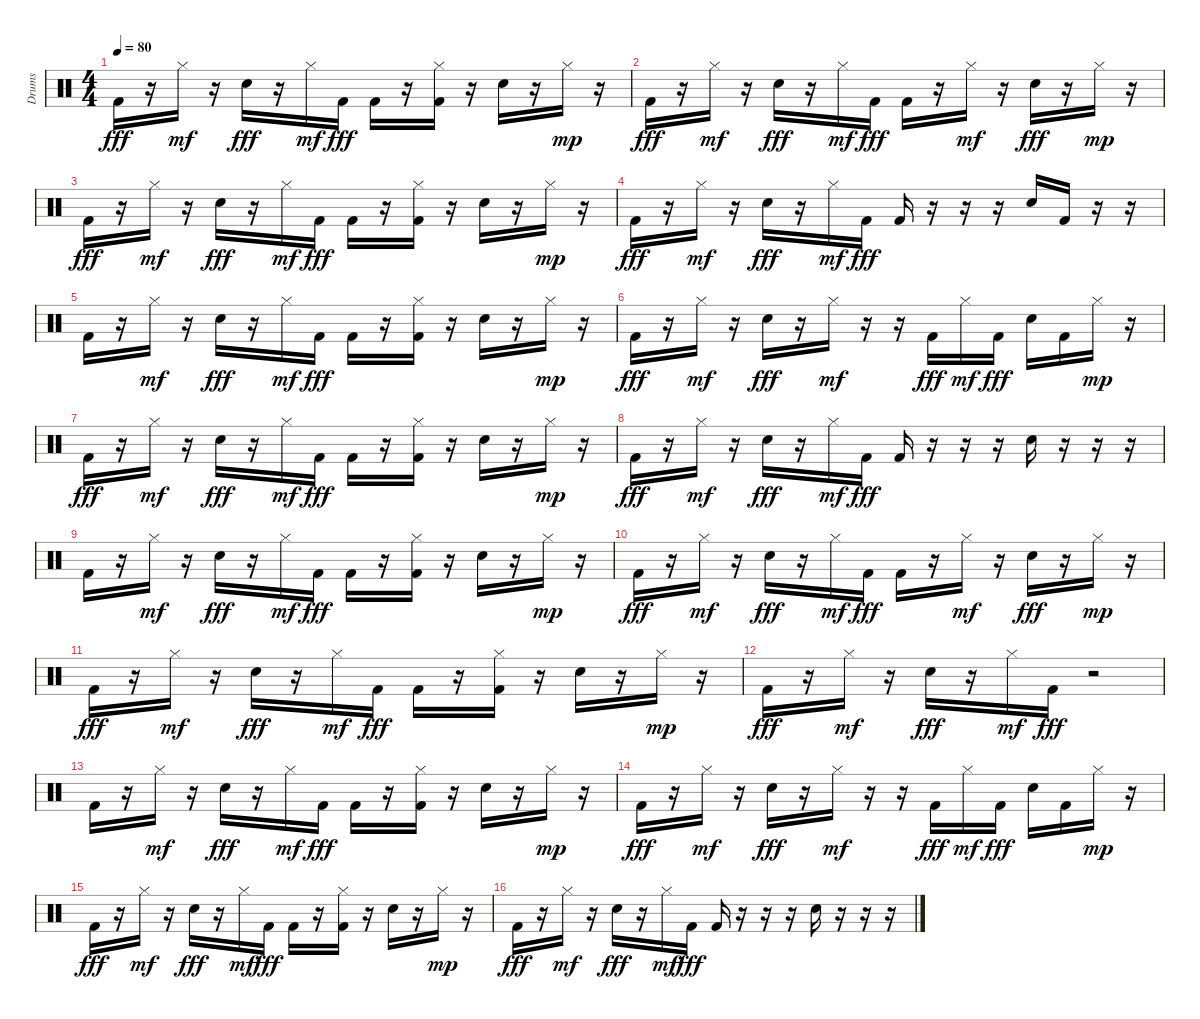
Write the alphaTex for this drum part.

\track ("Drums" "Drums") {instrument percussion}
\staff
\articulation defaults
\ts (4 4)
\tempo 80
\clef neutral
\ks c "Kick (hit) 2".16{dy fff}
r.16 "Hi-Hat (closed)".16{dy mf} r.16 "Electric Snare (hit)".16{dy fff} r.16 "Hi-Hat (closed)".16{dy mf} "Kick (hit) 2".16{dy fff} "Kick (hit) 2".16 r.16 ("Hi-Hat (closed)" "Kick (hit) 2").16 r.16 "Electric Snare (hit)".16 r.16 "Hi-Hat (closed)".16{dy mp} r.16 |
"Kick (hit) 2".16{dy fff} r.16 "Hi-Hat (closed)".16{dy mf} r.16 "Electric Snare (hit)".16{dy fff} r.16 "Hi-Hat (closed)".16{dy mf} "Kick (hit) 2".16{dy fff} "Kick (hit) 2".16 r.16 "Hi-Hat (closed)".16{dy mf} r.16 "Electric Snare (hit)".16{dy fff} r.16 "Hi-Hat (closed)".16{dy mp} r.16 |
"Kick (hit) 2".16{dy fff} r.16 "Hi-Hat (closed)".16{dy mf} r.16 "Electric Snare (hit)".16{dy fff} r.16 "Hi-Hat (closed)".16{dy mf} "Kick (hit) 2".16{dy fff} "Kick (hit) 2".16 r.16 ("Hi-Hat (closed)" "Kick (hit) 2").16 r.16 "Electric Snare (hit)".16 r.16 "Hi-Hat (closed)".16{dy mp} r.16 |
"Kick (hit) 2".16{dy fff} r.16 "Hi-Hat (closed)".16{dy mf} r.16 "Electric Snare (hit)".16{dy fff} r.16 "Hi-Hat (closed)".16{dy mf} "Kick (hit) 2".16{dy fff} "Kick (hit) 2".16 r.16 r.16 r.16 "Electric Snare (hit)".16 "Kick (hit) 2".16 r.16 r.16 |
"Kick (hit) 2".16 r.16 "Hi-Hat (closed)".16{dy mf} r.16 "Electric Snare (hit)".16{dy fff} r.16 "Hi-Hat (closed)".16{dy mf} "Kick (hit) 2".16{dy fff} "Kick (hit) 2".16 r.16 ("Hi-Hat (closed)" "Kick (hit) 2").16 r.16 "Electric Snare (hit)".16 r.16 "Hi-Hat (closed)".16{dy mp} r.16 |
"Kick (hit) 2".16{dy fff} r.16 "Hi-Hat (closed)".16{dy mf} r.16 "Electric Snare (hit)".16{dy fff} r.16 "Hi-Hat (closed)".16{dy mf} r.16 r.16 "Kick (hit) 2".16{dy fff} "Hi-Hat (closed)".16{dy mf} "Kick (hit) 2".16{dy fff} "Electric Snare (hit)".16 "Kick (hit) 2".16 "Hi-Hat (closed)".16{dy mp} r.16 |
"Kick (hit) 2".16{dy fff} r.16 "Hi-Hat (closed)".16{dy mf} r.16 "Electric Snare (hit)".16{dy fff} r.16 "Hi-Hat (closed)".16{dy mf} "Kick (hit) 2".16{dy fff} "Kick (hit) 2".16 r.16 ("Hi-Hat (closed)" "Kick (hit) 2").16 r.16 "Electric Snare (hit)".16 r.16 "Hi-Hat (closed)".16{dy mp} r.16 |
"Kick (hit) 2".16{dy fff} r.16 "Hi-Hat (closed)".16{dy mf} r.16 "Electric Snare (hit)".16{dy fff} r.16 "Hi-Hat (closed)".16{dy mf} "Kick (hit) 2".16{dy fff} "Kick (hit) 2".16 r.16 r.16 r.16 "Electric Snare (hit)".16 r.16 r.16 r.16 |
"Kick (hit) 2".16 r.16 "Hi-Hat (closed)".16{dy mf} r.16 "Electric Snare (hit)".16{dy fff} r.16 "Hi-Hat (closed)".16{dy mf} "Kick (hit) 2".16{dy fff} "Kick (hit) 2".16 r.16 ("Hi-Hat (closed)" "Kick (hit) 2").16 r.16 "Electric Snare (hit)".16 r.16 "Hi-Hat (closed)".16{dy mp} r.16 |
"Kick (hit) 2".16{dy fff} r.16 "Hi-Hat (closed)".16{dy mf} r.16 "Electric Snare (hit)".16{dy fff} r.16 "Hi-Hat (closed)".16{dy mf} "Kick (hit) 2".16{dy fff} "Kick (hit) 2".16 r.16 "Hi-Hat (closed)".16{dy mf} r.16 "Electric Snare (hit)".16{dy fff} r.16 "Hi-Hat (closed)".16{dy mp} r.16 |
"Kick (hit) 2".16{dy fff} r.16 "Hi-Hat (closed)".16{dy mf} r.16 "Electric Snare (hit)".16{dy fff} r.16 "Hi-Hat (closed)".16{dy mf} "Kick (hit) 2".16{dy fff} "Kick (hit) 2".16 r.16 ("Hi-Hat (closed)" "Kick (hit) 2").16 r.16 "Electric Snare (hit)".16 r.16 "Hi-Hat (closed)".16{dy mp} r.16 |
"Kick (hit) 2".16{dy fff} r.16 "Hi-Hat (closed)".16{dy mf} r.16 "Electric Snare (hit)".16{dy fff} r.16 "Hi-Hat (closed)".16{dy mf} "Kick (hit) 2".16{dy fff} r.2 |
"Kick (hit) 2".16 r.16 "Hi-Hat (closed)".16{dy mf} r.16 "Electric Snare (hit)".16{dy fff} r.16 "Hi-Hat (closed)".16{dy mf} "Kick (hit) 2".16{dy fff} "Kick (hit) 2".16 r.16 ("Hi-Hat (closed)" "Kick (hit) 2").16 r.16 "Electric Snare (hit)".16 r.16 "Hi-Hat (closed)".16{dy mp} r.16 |
"Kick (hit) 2".16{dy fff} r.16 "Hi-Hat (closed)".16{dy mf} r.16 "Electric Snare (hit)".16{dy fff} r.16 "Hi-Hat (closed)".16{dy mf} r.16 r.16 "Kick (hit) 2".16{dy fff} "Hi-Hat (closed)".16{dy mf} "Kick (hit) 2".16{dy fff} "Electric Snare (hit)".16 "Kick (hit) 2".16 "Hi-Hat (closed)".16{dy mp} r.16 |
"Kick (hit) 2".16{dy fff} r.16 "Hi-Hat (closed)".16{dy mf} r.16 "Electric Snare (hit)".16{dy fff} r.16 "Hi-Hat (closed)".16{dy mf} "Kick (hit) 2".16{dy fff} "Kick (hit) 2".16 r.16 ("Hi-Hat (closed)" "Kick (hit) 2").16 r.16 "Electric Snare (hit)".16 r.16 "Hi-Hat (closed)".16{dy mp} r.16 |
"Kick (hit) 2".16{dy fff} r.16 "Hi-Hat (closed)".16{dy mf} r.16 "Electric Snare (hit)".16{dy fff} r.16 "Hi-Hat (closed)".16{dy mf} "Kick (hit) 2".16{dy fff} "Kick (hit) 2".16 r.16 r.16 r.16 "Electric Snare (hit)".16 r.16 r.16 r.16
